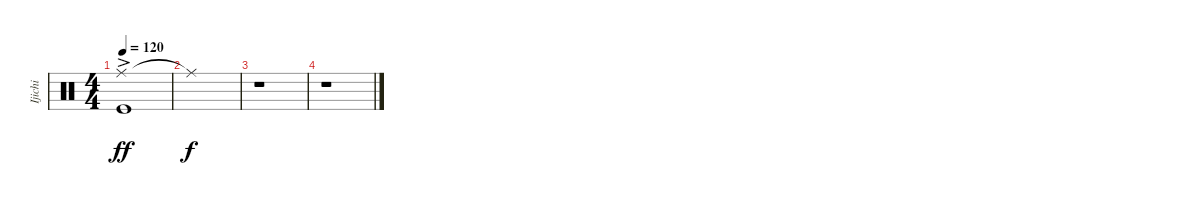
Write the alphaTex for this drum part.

\track ("Ijichi" "Ijichi") {instrument percussion}
\staff {score}
\articulation defaults
\ts (4 4)
\tempo 120
\clef neutral
\ks c
("Ride (middle)"{ac} "Kick (hit)").1{dy ff} |
"Ride (middle)"{t}.1{dy f} |
r.1 |
r.1
